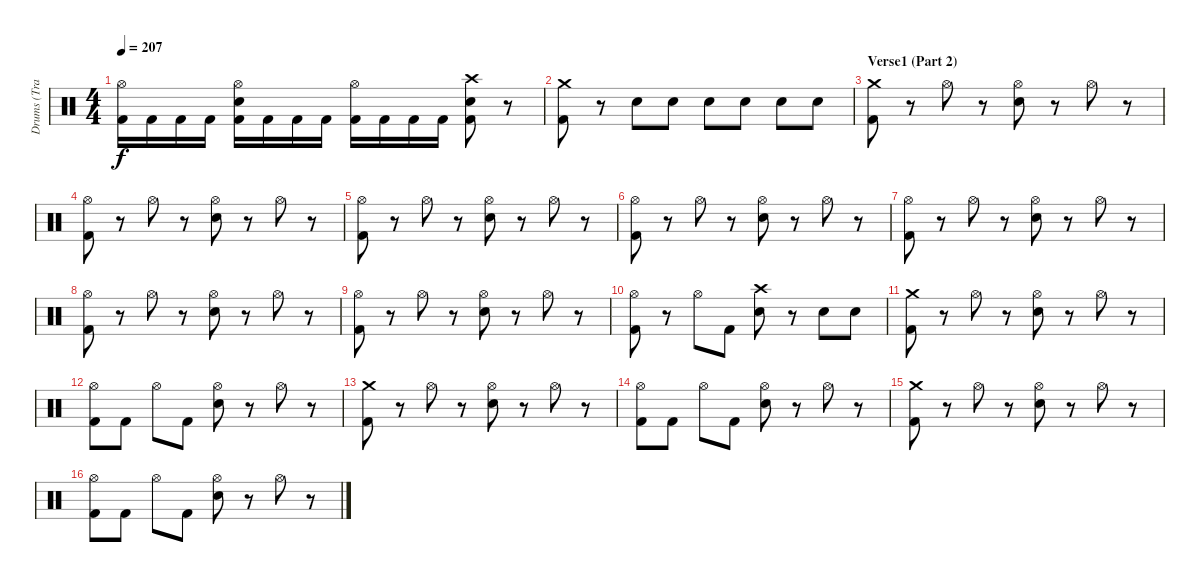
\track ("Drums (Travis)" "Drums (Tra") {instrument percussion}
\staff {score}
\articulation defaults
\ts (4 4)
\tempo 207
\clef neutral
\ks c
("Hi-Hat (open)" "Kick (hit) 2").16{dy f} "Kick (hit) 2".16 "Kick (hit) 2".16 "Kick (hit) 2".16 ("Hi-Hat (open)" "Snare (hit) 2" "Kick (hit) 2").16 "Kick (hit) 2".16 "Kick (hit) 2".16 "Kick (hit) 2".16 ("Hi-Hat (open)" "Kick (hit) 2").16 "Kick (hit) 2".16 "Kick (hit) 2".16 "Kick (hit) 2".16 ("Crash high (hit)" "Snare (hit) 2" "Kick (hit) 2").8 r.8 |
("Crash medium (hit)" "Kick (hit) 2").8 r.8 "Snare (hit) 2".8 "Snare (hit) 2".8 "Snare (hit) 2".8 "Snare (hit) 2".8 "Snare (hit) 2".8 "Snare (hit) 2".8 |
\section ("" "Verse1 (Part 2)")
("Crash medium (hit)" "Kick (hit) 2").8 r.8 "Hi-Hat (open)".8 r.8 ("Hi-Hat (open)" "Snare (hit) 2").8 r.8 "Hi-Hat (open)".8 r.8 |
("Hi-Hat (open)" "Kick (hit) 2").8 r.8 "Hi-Hat (open)".8 r.8 ("Hi-Hat (open)" "Snare (hit) 2").8 r.8 "Hi-Hat (open)".8 r.8 |
("Hi-Hat (open)" "Kick (hit) 2").8 r.8 "Hi-Hat (open)".8 r.8 ("Hi-Hat (open)" "Snare (hit) 2").8 r.8 "Hi-Hat (open)".8 r.8 |
("Hi-Hat (open)" "Kick (hit) 2").8 r.8 "Hi-Hat (open)".8 r.8 ("Hi-Hat (open)" "Snare (hit) 2").8 r.8 "Hi-Hat (open)".8 r.8 |
("Hi-Hat (open)" "Kick (hit) 2").8 r.8 "Hi-Hat (open)".8 r.8 ("Hi-Hat (open)" "Snare (hit) 2").8 r.8 "Hi-Hat (open)".8 r.8 |
("Hi-Hat (open)" "Kick (hit) 2").8 r.8 "Hi-Hat (open)".8 r.8 ("Hi-Hat (open)" "Snare (hit) 2").8 r.8 "Hi-Hat (open)".8 r.8 |
("Hi-Hat (open)" "Kick (hit) 2").8 r.8 "Hi-Hat (open)".8 r.8 ("Hi-Hat (open)" "Snare (hit) 2").8 r.8 "Hi-Hat (open)".8 r.8 |
("Hi-Hat (open)" "Kick (hit) 2").8 r.8 "Hi-Hat (open)".8 "Kick (hit) 2".8 ("Crash high (hit)" "Snare (hit) 2").8 r.8 "Snare (hit) 2".8 "Snare (hit) 2".8 |
("Crash medium (hit)" "Kick (hit) 2").8 r.8 "Hi-Hat (open)".8 r.8 ("Hi-Hat (open)" "Snare (hit) 2").8 r.8 "Hi-Hat (open)".8 r.8 |
("Hi-Hat (open)" "Kick (hit) 2").8 "Kick (hit) 2".8 "Hi-Hat (open)".8 "Kick (hit) 2".8 ("Hi-Hat (open)" "Snare (hit) 2").8 r.8 "Hi-Hat (open)".8 r.8 |
("Crash medium (hit)" "Kick (hit) 2").8 r.8 "Hi-Hat (open)".8 r.8 ("Hi-Hat (open)" "Snare (hit) 2").8 r.8 "Hi-Hat (open)".8 r.8 |
("Hi-Hat (open)" "Kick (hit) 2").8 "Kick (hit) 2".8 "Hi-Hat (open)".8 "Kick (hit) 2".8 ("Hi-Hat (open)" "Snare (hit) 2").8 r.8 "Hi-Hat (open)".8 r.8 |
("Crash medium (hit)" "Kick (hit) 2").8 r.8 "Hi-Hat (open)".8 r.8 ("Hi-Hat (open)" "Snare (hit) 2").8 r.8 "Hi-Hat (open)".8 r.8 |
("Hi-Hat (open)" "Kick (hit) 2").8 "Kick (hit) 2".8 "Hi-Hat (open)".8 "Kick (hit) 2".8 ("Hi-Hat (open)" "Snare (hit) 2").8 r.8 "Hi-Hat (open)".8 r.8
